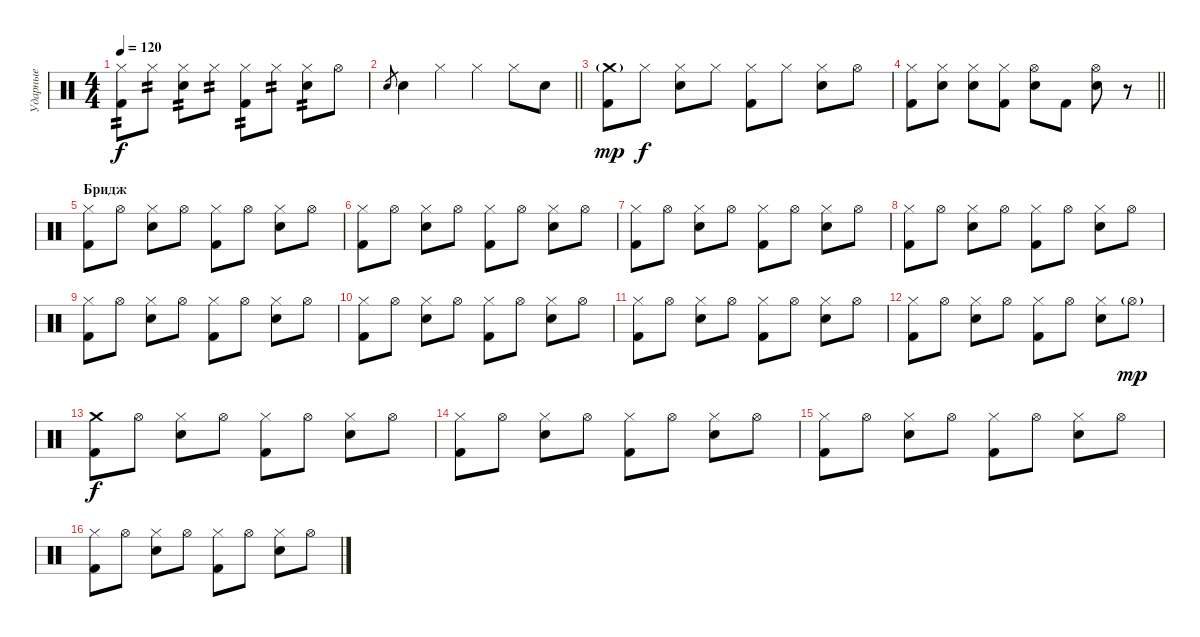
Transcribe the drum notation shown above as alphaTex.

\track ("Ударные" "Ударные") {instrument percussion}
\staff {score}
\articulation defaults
\ts (4 4)
\tempo 120
\clef neutral
\ks c
("Hi-Hat (closed)" "Kick (hit) 2").8{tp 2 dy f} "Hi-Hat (closed)".8{tp 2} ("Hi-Hat (closed)" "Snare (hit) 2").8{tp 2} "Hi-Hat (closed)".8{tp 2} ("Hi-Hat (closed)" "Kick (hit) 2").8{tp 2} "Hi-Hat (closed)".8{tp 2} ("Hi-Hat (closed)" "Snare (hit) 2").8{tp 2} "Hi-Hat (open)".8 |
\barLineRight lightlight "Snare (hit) 2".8{gr} "Snare (hit) 2".4 "Hi-Hat (closed)".4 "Hi-Hat (closed)".4 "Hi-Hat (closed)".8 "Snare (hit) 2".8
|
\section ("" "")
("Crash medium (hit)"{g} "Kick (hit) 2").8{dy mp} "Hi-Hat (closed)".8{dy f} ("Hi-Hat (closed)" "Snare (hit) 2").8 "Hi-Hat (closed)".8 ("Hi-Hat (closed)" "Kick (hit) 2").8 "Hi-Hat (closed)".8 ("Hi-Hat (closed)" "Snare (hit) 2").8 "Hi-Hat (open)".8 |
\barLineRight lightlight
("Hi-Hat (closed)" "Kick (hit) 2").8 ("Hi-Hat (closed)" "Snare (hit) 2").8 ("Hi-Hat (closed)" "Snare (hit) 2").8 ("Hi-Hat (closed)" "Kick (hit) 2").8 ("Hi-Hat (open)" "Snare (hit) 2").8 "Kick (hit) 2".8 ("Hi-Hat (open)" "Snare (hit) 2").8 r.8 |
\section ("" "Бридж")
("Hi-Hat (closed)" "Kick (hit) 2").8 "Hi-Hat (open)".8 ("Hi-Hat (closed)" "Snare (hit) 2").8 "Hi-Hat (open)".8 ("Hi-Hat (closed)" "Kick (hit) 2").8 "Hi-Hat (open)".8 ("Hi-Hat (closed)" "Snare (hit) 2").8 "Hi-Hat (open)".8 |
("Hi-Hat (closed)" "Kick (hit) 2").8 "Hi-Hat (open)".8 ("Hi-Hat (closed)" "Snare (hit) 2").8 "Hi-Hat (open)".8 ("Hi-Hat (closed)" "Kick (hit) 2").8 "Hi-Hat (open)".8 ("Hi-Hat (closed)" "Snare (hit) 2").8 "Hi-Hat (open)".8 |
("Hi-Hat (closed)" "Kick (hit) 2").8 "Hi-Hat (open)".8 ("Hi-Hat (closed)" "Snare (hit) 2").8 "Hi-Hat (open)".8 ("Hi-Hat (closed)" "Kick (hit) 2").8 "Hi-Hat (open)".8 ("Hi-Hat (closed)" "Snare (hit) 2").8 "Hi-Hat (open)".8 |
("Hi-Hat (closed)" "Kick (hit) 2").8 "Hi-Hat (open)".8 ("Hi-Hat (closed)" "Snare (hit) 2").8 "Hi-Hat (open)".8 ("Hi-Hat (closed)" "Kick (hit) 2").8 "Hi-Hat (open)".8 ("Hi-Hat (closed)" "Snare (hit) 2").8 "Hi-Hat (open)".8 |
("Hi-Hat (closed)" "Kick (hit) 2").8 "Hi-Hat (open)".8 ("Hi-Hat (closed)" "Snare (hit) 2").8 "Hi-Hat (open)".8 ("Hi-Hat (closed)" "Kick (hit) 2").8 "Hi-Hat (open)".8 ("Hi-Hat (closed)" "Snare (hit) 2").8 "Hi-Hat (open)".8 |
("Hi-Hat (closed)" "Kick (hit) 2").8 "Hi-Hat (open)".8 ("Hi-Hat (closed)" "Snare (hit) 2").8 "Hi-Hat (open)".8 ("Hi-Hat (closed)" "Kick (hit) 2").8 "Hi-Hat (open)".8 ("Hi-Hat (closed)" "Snare (hit) 2").8 "Hi-Hat (open)".8 |
("Hi-Hat (closed)" "Kick (hit) 2").8 "Hi-Hat (open)".8 ("Hi-Hat (closed)" "Snare (hit) 2").8 "Hi-Hat (open)".8 ("Hi-Hat (closed)" "Kick (hit) 2").8 "Hi-Hat (open)".8 ("Hi-Hat (closed)" "Snare (hit) 2").8 "Hi-Hat (open)".8 |
("Hi-Hat (closed)" "Kick (hit) 2").8 "Hi-Hat (open)".8 ("Hi-Hat (closed)" "Snare (hit) 2").8 "Hi-Hat (open)".8 ("Hi-Hat (closed)" "Kick (hit) 2").8 "Hi-Hat (open)".8 ("Hi-Hat (closed)" "Snare (hit) 2").8 "Hi-Hat (open)"{g}.8{dy mp} |
("Crash medium (hit)" "Kick (hit) 2").8{dy f} "Hi-Hat (open)".8 ("Hi-Hat (closed)" "Snare (hit) 2").8 "Hi-Hat (open)".8 ("Hi-Hat (closed)" "Kick (hit) 2").8 "Hi-Hat (open)".8 ("Hi-Hat (closed)" "Snare (hit) 2").8 "Hi-Hat (open)".8 |
("Hi-Hat (closed)" "Kick (hit) 2").8 "Hi-Hat (open)".8 ("Hi-Hat (closed)" "Snare (hit) 2").8 "Hi-Hat (open)".8 ("Hi-Hat (closed)" "Kick (hit) 2").8 "Hi-Hat (open)".8 ("Hi-Hat (closed)" "Snare (hit) 2").8 "Hi-Hat (open)".8 |
("Hi-Hat (closed)" "Kick (hit) 2").8 "Hi-Hat (open)".8 ("Hi-Hat (closed)" "Snare (hit) 2").8 "Hi-Hat (open)".8 ("Hi-Hat (closed)" "Kick (hit) 2").8 "Hi-Hat (open)".8 ("Hi-Hat (closed)" "Snare (hit) 2").8 "Hi-Hat (open)".8 |
("Hi-Hat (closed)" "Kick (hit) 2").8 "Hi-Hat (open)".8 ("Hi-Hat (closed)" "Snare (hit) 2").8 "Hi-Hat (open)".8 ("Hi-Hat (closed)" "Kick (hit) 2").8 "Hi-Hat (open)".8 ("Hi-Hat (closed)" "Snare (hit) 2").8 "Hi-Hat (open)".8
